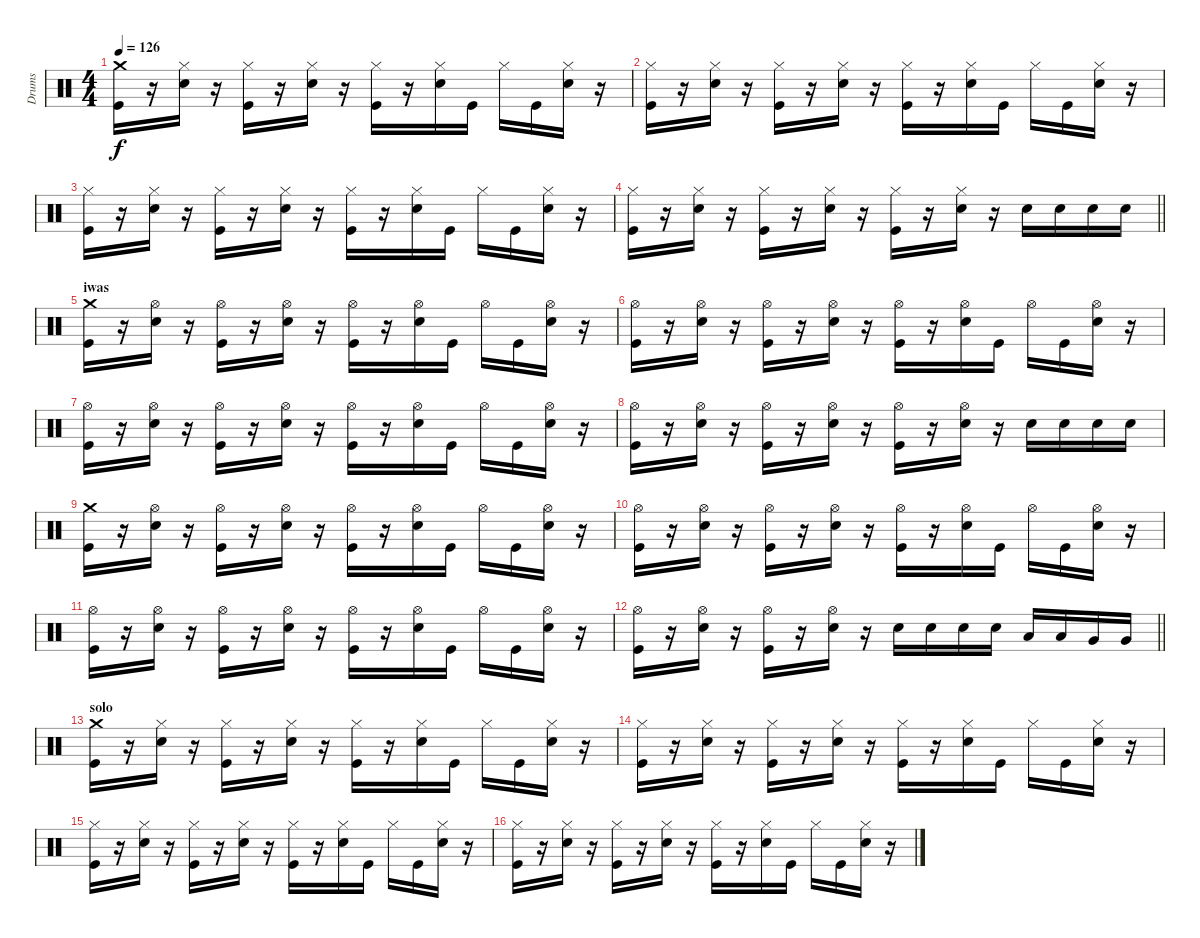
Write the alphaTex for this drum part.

\track ("Drums" "Drums") {instrument percussion}
\staff {score}
\articulation defaults
\ts (4 4)
\tempo 126
\clef neutral
\ks c
("Crash medium (hit)" "Kick (hit)").16{dy f} r.16 ("Hi-Hat (closed)" "Snare (hit) 2").16 r.16 ("Hi-Hat (closed)" "Kick (hit)").16 r.16 ("Hi-Hat (closed)" "Snare (hit) 2").16 r.16 ("Hi-Hat (closed)" "Kick (hit)").16 r.16 ("Hi-Hat (closed)" "Snare (hit) 2").16 "Kick (hit)".16 "Hi-Hat (closed)".16 "Kick (hit)".16 ("Hi-Hat (closed)" "Snare (hit) 2").16 r.16 |
("Hi-Hat (closed)" "Kick (hit)").16 r.16 ("Hi-Hat (closed)" "Snare (hit) 2").16 r.16 ("Hi-Hat (closed)" "Kick (hit)").16 r.16 ("Hi-Hat (closed)" "Snare (hit) 2").16 r.16 ("Hi-Hat (closed)" "Kick (hit)").16 r.16 ("Hi-Hat (closed)" "Snare (hit) 2").16 "Kick (hit)".16 "Hi-Hat (closed)".16 "Kick (hit)".16 ("Hi-Hat (closed)" "Snare (hit) 2").16 r.16 |
("Hi-Hat (closed)" "Kick (hit)").16 r.16 ("Hi-Hat (closed)" "Snare (hit) 2").16 r.16 ("Hi-Hat (closed)" "Kick (hit)").16 r.16 ("Hi-Hat (closed)" "Snare (hit) 2").16 r.16 ("Hi-Hat (closed)" "Kick (hit)").16 r.16 ("Hi-Hat (closed)" "Snare (hit) 2").16 "Kick (hit)".16 "Hi-Hat (closed)".16 "Kick (hit)".16 ("Hi-Hat (closed)" "Snare (hit) 2").16 r.16 |
\barLineRight lightlight
("Hi-Hat (closed)" "Kick (hit)").16 r.16 ("Hi-Hat (closed)" "Snare (hit) 2").16 r.16 ("Hi-Hat (closed)" "Kick (hit)").16 r.16 ("Hi-Hat (closed)" "Snare (hit) 2").16 r.16 ("Hi-Hat (closed)" "Kick (hit)").16 r.16 ("Hi-Hat (closed)" "Snare (hit) 2").16 r.16 "Snare (hit) 2".16 "Snare (hit) 2".16 "Snare (hit) 2".16 "Snare (hit) 2".16 |
\section ("" "iwas")
("Crash medium (hit)" "Kick (hit)").16 r.16 ("Hi-Hat (open)" "Snare (hit) 2").16 r.16 ("Hi-Hat (open)" "Kick (hit)").16 r.16 ("Hi-Hat (open)" "Snare (hit) 2").16 r.16 ("Hi-Hat (open)" "Kick (hit)").16 r.16 ("Hi-Hat (open)" "Snare (hit) 2").16 "Kick (hit)".16 "Hi-Hat (open)".16 "Kick (hit)".16 ("Hi-Hat (open)" "Snare (hit) 2").16 r.16 |
("Hi-Hat (open)" "Kick (hit)").16 r.16 ("Hi-Hat (open)" "Snare (hit) 2").16 r.16 ("Hi-Hat (open)" "Kick (hit)").16 r.16 ("Hi-Hat (open)" "Snare (hit) 2").16 r.16 ("Hi-Hat (open)" "Kick (hit)").16 r.16 ("Hi-Hat (open)" "Snare (hit) 2").16 "Kick (hit)".16 "Hi-Hat (open)".16 "Kick (hit)".16 ("Hi-Hat (open)" "Snare (hit) 2").16 r.16 |
("Hi-Hat (open)" "Kick (hit)").16 r.16 ("Hi-Hat (open)" "Snare (hit) 2").16 r.16 ("Hi-Hat (open)" "Kick (hit)").16 r.16 ("Hi-Hat (open)" "Snare (hit) 2").16 r.16 ("Hi-Hat (open)" "Kick (hit)").16 r.16 ("Hi-Hat (open)" "Snare (hit) 2").16 "Kick (hit)".16 "Hi-Hat (open)".16 "Kick (hit)".16 ("Hi-Hat (open)" "Snare (hit) 2").16 r.16 |
("Hi-Hat (open)" "Kick (hit)").16 r.16 ("Hi-Hat (open)" "Snare (hit) 2").16 r.16 ("Hi-Hat (open)" "Kick (hit)").16 r.16 ("Hi-Hat (open)" "Snare (hit) 2").16 r.16 ("Hi-Hat (open)" "Kick (hit)").16 r.16 ("Hi-Hat (open)" "Snare (hit) 2").16 r.16 "Snare (hit) 2".16 "Snare (hit) 2".16 "Snare (hit) 2".16 "Snare (hit) 2".16 |
("Crash medium (hit)" "Kick (hit)").16 r.16 ("Hi-Hat (open)" "Snare (hit) 2").16 r.16 ("Hi-Hat (open)" "Kick (hit)").16 r.16 ("Hi-Hat (open)" "Snare (hit) 2").16 r.16 ("Hi-Hat (open)" "Kick (hit)").16 r.16 ("Hi-Hat (open)" "Snare (hit) 2").16 "Kick (hit)".16 "Hi-Hat (open)".16 "Kick (hit)".16 ("Hi-Hat (open)" "Snare (hit) 2").16 r.16 |
("Hi-Hat (open)" "Kick (hit)").16 r.16 ("Hi-Hat (open)" "Snare (hit) 2").16 r.16 ("Hi-Hat (open)" "Kick (hit)").16 r.16 ("Hi-Hat (open)" "Snare (hit) 2").16 r.16 ("Hi-Hat (open)" "Kick (hit)").16 r.16 ("Hi-Hat (open)" "Snare (hit) 2").16 "Kick (hit)".16 "Hi-Hat (open)".16 "Kick (hit)".16 ("Hi-Hat (open)" "Snare (hit) 2").16 r.16 |
("Hi-Hat (open)" "Kick (hit)").16 r.16 ("Hi-Hat (open)" "Snare (hit) 2").16 r.16 ("Hi-Hat (open)" "Kick (hit)").16 r.16 ("Hi-Hat (open)" "Snare (hit) 2").16 r.16 ("Hi-Hat (open)" "Kick (hit)").16 r.16 ("Hi-Hat (open)" "Snare (hit) 2").16 "Kick (hit)".16 "Hi-Hat (open)".16 "Kick (hit)".16 ("Hi-Hat (open)" "Snare (hit) 2").16 r.16 |
\barLineRight lightlight
("Hi-Hat (open)" "Kick (hit)").16 r.16 ("Hi-Hat (open)" "Snare (hit) 2").16 r.16 ("Hi-Hat (open)" "Kick (hit)").16 r.16 ("Hi-Hat (open)" "Snare (hit) 2").16 r.16 "Snare (hit) 2".16 "Snare (hit) 2".16 "Snare (hit) 2".16 "Snare (hit) 2".16 "Low Tom (hit)".16 "Low Tom (hit)".16 "Very Low Tom (hit)".16 "Very Low Tom (hit)".16 |
\section ("" "solo")
("Crash medium (hit)" "Kick (hit)").16 r.16 ("Hi-Hat (closed)" "Snare (hit) 2").16 r.16 ("Hi-Hat (closed)" "Kick (hit)").16 r.16 ("Hi-Hat (closed)" "Snare (hit) 2").16 r.16 ("Hi-Hat (closed)" "Kick (hit)").16 r.16 ("Hi-Hat (closed)" "Snare (hit) 2").16 "Kick (hit)".16 "Hi-Hat (closed)".16 "Kick (hit)".16 ("Hi-Hat (closed)" "Snare (hit) 2").16 r.16 |
("Hi-Hat (closed)" "Kick (hit)").16 r.16 ("Hi-Hat (closed)" "Snare (hit) 2").16 r.16 ("Hi-Hat (closed)" "Kick (hit)").16 r.16 ("Hi-Hat (closed)" "Snare (hit) 2").16 r.16 ("Hi-Hat (closed)" "Kick (hit)").16 r.16 ("Hi-Hat (closed)" "Snare (hit) 2").16 "Kick (hit)".16 "Hi-Hat (closed)".16 "Kick (hit)".16 ("Hi-Hat (closed)" "Snare (hit) 2").16 r.16 |
("Hi-Hat (closed)" "Kick (hit)").16 r.16 ("Hi-Hat (closed)" "Snare (hit) 2").16 r.16 ("Hi-Hat (closed)" "Kick (hit)").16 r.16 ("Hi-Hat (closed)" "Snare (hit) 2").16 r.16 ("Hi-Hat (closed)" "Kick (hit)").16 r.16 ("Hi-Hat (closed)" "Snare (hit) 2").16 "Kick (hit)".16 "Hi-Hat (closed)".16 "Kick (hit)".16 ("Hi-Hat (closed)" "Snare (hit) 2").16 r.16 |
("Hi-Hat (closed)" "Kick (hit)").16 r.16 ("Hi-Hat (closed)" "Snare (hit) 2").16 r.16 ("Hi-Hat (closed)" "Kick (hit)").16 r.16 ("Hi-Hat (closed)" "Snare (hit) 2").16 r.16 ("Hi-Hat (closed)" "Kick (hit)").16 r.16 ("Hi-Hat (closed)" "Snare (hit) 2").16 "Kick (hit)".16 "Hi-Hat (closed)".16 "Kick (hit)".16 ("Hi-Hat (closed)" "Snare (hit) 2").16 r.16
